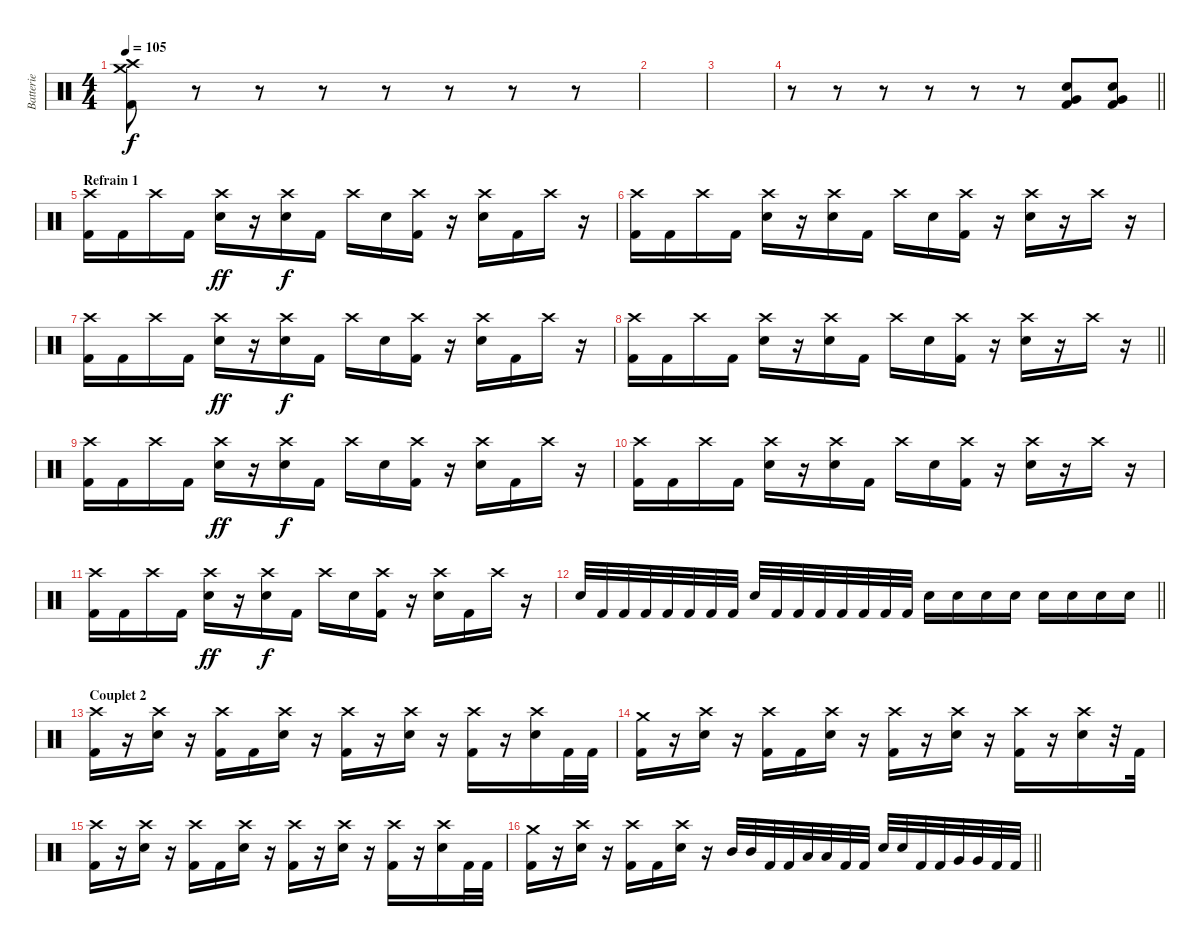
\track ("Batterie" "Batterie") {instrument percussion}
\staff {score}
\articulation defaults
\ts (4 4)
\tempo 105
\clef neutral
\ks c
("Kick (hit) 2" "Crash high (hit)" "Crash medium (hit)").8{dy f} r.8 r.8 r.8 r.8 r.8 r.8 r.8 |
|
|
\barLineRight lightlight
r.8 r.8 r.8 r.8 r.8 r.8 ("Kick (hit) 2" "Electric Snare (hit)" "Very Low Tom (hit)").8 ("Kick (hit) 2" "Electric Snare (hit)" "Very Low Tom (hit)").8 |
\section ("" "Refrain 1")
("Kick (hit) 2" "Crash high (hit)").16 "Kick (hit) 2".16 "Crash high (hit)".16 "Kick (hit) 2".16 ("Electric Snare (hit)" "Crash high (hit)").16{dy ff} r.16 ("Electric Snare (hit)" "Crash high (hit)").16{dy f} "Kick (hit) 2".16 "Crash high (hit)".16 "Electric Snare (hit)".16 ("Kick (hit) 2" "Crash high (hit)").16 r.16 ("Electric Snare (hit)" "Crash high (hit)").16 "Kick (hit) 2".16 "Crash high (hit)".16 r.16 |
("Kick (hit) 2" "Crash high (hit)").16 "Kick (hit) 2".16 "Crash high (hit)".16 "Kick (hit) 2".16 ("Electric Snare (hit)" "Crash high (hit)").16 r.16 ("Electric Snare (hit)" "Crash high (hit)").16 "Kick (hit) 2".16 "Crash high (hit)".16 "Electric Snare (hit)".16 ("Kick (hit) 2" "Crash high (hit)").16 r.16 ("Electric Snare (hit)" "Crash high (hit)").16 r.16 "Crash high (hit)".16 r.16 |
("Kick (hit) 2" "Crash high (hit)").16 "Kick (hit) 2".16 "Crash high (hit)".16 "Kick (hit) 2".16 ("Electric Snare (hit)" "Crash high (hit)").16{dy ff} r.16 ("Electric Snare (hit)" "Crash high (hit)").16{dy f} "Kick (hit) 2".16 "Crash high (hit)".16 "Electric Snare (hit)".16 ("Kick (hit) 2" "Crash high (hit)").16 r.16 ("Electric Snare (hit)" "Crash high (hit)").16 "Kick (hit) 2".16 "Crash high (hit)".16 r.16 |
\barLineRight lightlight
("Kick (hit) 2" "Crash high (hit)").16 "Kick (hit) 2".16 "Crash high (hit)".16 "Kick (hit) 2".16 ("Electric Snare (hit)" "Crash high (hit)").16 r.16 ("Electric Snare (hit)" "Crash high (hit)").16 "Kick (hit) 2".16 "Crash high (hit)".16 "Electric Snare (hit)".16 ("Kick (hit) 2" "Crash high (hit)").16 r.16 ("Electric Snare (hit)" "Crash high (hit)").16 r.16 "Crash high (hit)".16 r.16 |
("Kick (hit) 2" "Crash high (hit)").16 "Kick (hit) 2".16 "Crash high (hit)".16 "Kick (hit) 2".16 ("Electric Snare (hit)" "Crash high (hit)").16{dy ff} r.16 ("Electric Snare (hit)" "Crash high (hit)").16{dy f} "Kick (hit) 2".16 "Crash high (hit)".16 "Electric Snare (hit)".16 ("Kick (hit) 2" "Crash high (hit)").16 r.16 ("Electric Snare (hit)" "Crash high (hit)").16 "Kick (hit) 2".16 "Crash high (hit)".16 r.16 |
("Kick (hit) 2" "Crash high (hit)").16 "Kick (hit) 2".16 "Crash high (hit)".16 "Kick (hit) 2".16 ("Electric Snare (hit)" "Crash high (hit)").16 r.16 ("Electric Snare (hit)" "Crash high (hit)").16 "Kick (hit) 2".16 "Crash high (hit)".16 "Electric Snare (hit)".16 ("Kick (hit) 2" "Crash high (hit)").16 r.16 ("Electric Snare (hit)" "Crash high (hit)").16 r.16 "Crash high (hit)".16 r.16 |
("Kick (hit) 2" "Crash high (hit)").16 "Kick (hit) 2".16 "Crash high (hit)".16 "Kick (hit) 2".16 ("Electric Snare (hit)" "Crash high (hit)").16{dy ff} r.16 ("Electric Snare (hit)" "Crash high (hit)").16{dy f} "Kick (hit) 2".16 "Crash high (hit)".16 "Electric Snare (hit)".16 ("Kick (hit) 2" "Crash high (hit)").16 r.16 ("Electric Snare (hit)" "Crash high (hit)").16 "Kick (hit) 2".16 "Crash high (hit)".16 r.16 |
\barLineRight lightlight "Electric Snare (hit)".32 "Kick (hit) 2".32 "Kick (hit) 2".32 "Kick (hit) 2".32 "Kick (hit) 2".32 "Kick (hit) 2".32 "Kick (hit) 2".32 "Kick (hit) 2".32 "Electric Snare (hit)".32 "Kick (hit) 2".32 "Kick (hit) 2".32 "Kick (hit) 2".32 "Kick (hit) 2".32 "Kick (hit) 2".32 "Kick (hit) 2".32 "Kick (hit) 2".32 "Electric Snare (hit)".16 "Electric Snare (hit)".16 "Electric Snare (hit)".16 "Electric Snare (hit)".16 "Electric Snare (hit)".16 "Electric Snare (hit)".16 "Electric Snare (hit)".16 "Electric Snare (hit)".16
|
\section ("" "Couplet 2")
("Kick (hit) 2" "Crash high (hit)").16 r.16 ("Electric Snare (hit)" "Crash high (hit)").16 r.16 ("Kick (hit) 2" "Crash high (hit)").16 "Kick (hit) 2".16 ("Electric Snare (hit)" "Crash high (hit)").16 r.16 ("Kick (hit) 2" "Crash high (hit)").16 r.16 ("Electric Snare (hit)" "Crash high (hit)").16 r.16 ("Kick (hit) 2" "Crash high (hit)").16 r.16 ("Electric Snare (hit)" "Crash high (hit)").16 "Kick (hit) 2".32 "Kick (hit) 2".32 |
("Kick (hit) 2" "Crash medium (hit)").16 r.16 ("Electric Snare (hit)" "Crash high (hit)").16 r.16 ("Kick (hit) 2" "Crash high (hit)").16 "Kick (hit) 2".16 ("Electric Snare (hit)" "Crash high (hit)").16 r.16 ("Kick (hit) 2" "Crash high (hit)").16 r.16 ("Electric Snare (hit)" "Crash high (hit)").16 r.16 ("Kick (hit) 2" "Crash high (hit)").16 r.16 ("Electric Snare (hit)" "Crash high (hit)").16 r.32 "Kick (hit) 2".32 |
("Kick (hit) 2" "Crash high (hit)").16 r.16 ("Electric Snare (hit)" "Crash high (hit)").16 r.16 ("Kick (hit) 2" "Crash high (hit)").16 "Kick (hit) 2".16 ("Electric Snare (hit)" "Crash high (hit)").16 r.16 ("Kick (hit) 2" "Crash high (hit)").16 r.16 ("Electric Snare (hit)" "Crash high (hit)").16 r.16 ("Kick (hit) 2" "Crash high (hit)").16 r.16 ("Electric Snare (hit)" "Crash high (hit)").16 "Kick (hit) 2".32 "Kick (hit) 2".32 |
\barLineRight lightlight
("Kick (hit) 2" "Crash medium (hit)").16 r.16 ("Electric Snare (hit)" "Crash high (hit)").16 r.16 ("Kick (hit) 2" "Crash high (hit)").16 "Kick (hit) 2".16 ("Electric Snare (hit)" "Crash high (hit)").16 r.16 "Mid Tom (hit)".32 "Mid Tom (hit)".32 "Kick (hit) 2".32 "Kick (hit) 2".32 "Low Tom (hit)".32 "Low Tom (hit)".32 "Kick (hit) 2".32 "Kick (hit) 2".32 "Electric Snare (hit)".32 "Electric Snare (hit)".32 "Kick (hit) 2".32 "Kick (hit) 2".32 "Very Low Tom (hit)".32 "Very Low Tom (hit)".32 "Kick (hit) 2".32 "Kick (hit) 2".32
